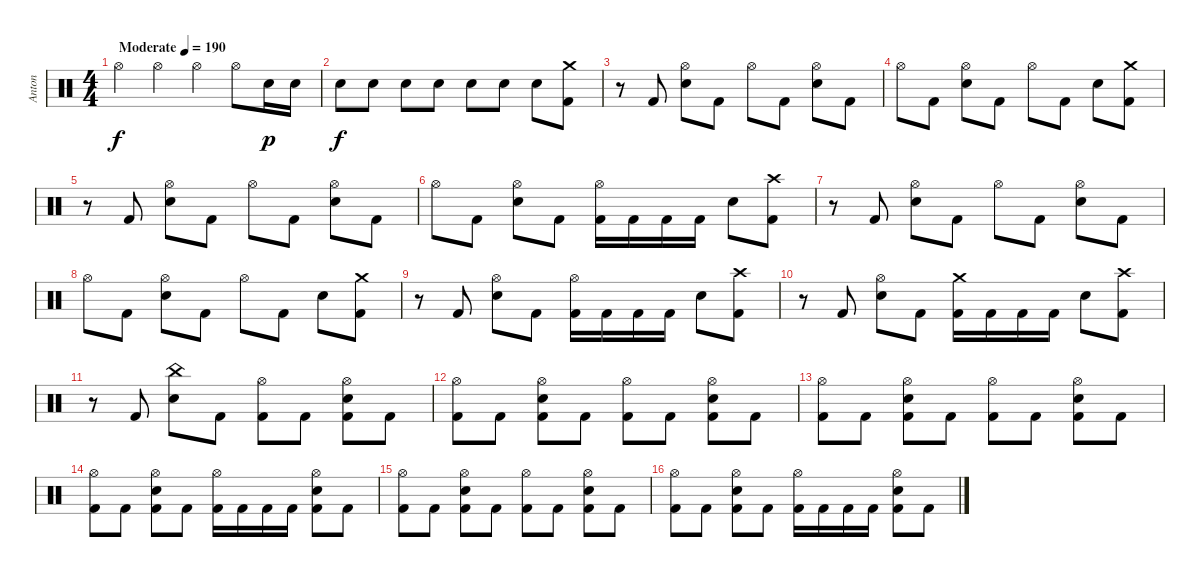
\track ("Anton" "Anton") {instrument percussion}
\staff {score}
\articulation defaults
\ts (4 4)
\tempo (190 "Moderate")
\clef neutral
\ks c "Hi-Hat (open)".4{dy f} "Hi-Hat (open)".4 "Hi-Hat (open)".4 "Hi-Hat (open)".8 "Electric Snare (hit)".16{dy p} "Electric Snare (hit)".16
|
"Electric Snare (hit)".8{dy f} "Electric Snare (hit)".8 "Electric Snare (hit)".8 "Electric Snare (hit)".8 "Electric Snare (hit)".8 "Electric Snare (hit)".8 "Electric Snare (hit)".8 ("Crash medium (hit)" "Kick (hit) 2").8 |
r.8 "Kick (hit) 2".8 ("Hi-Hat (open)" "Electric Snare (hit)").8 "Kick (hit) 2".8 "Hi-Hat (open)".8 "Kick (hit) 2".8 ("Hi-Hat (open)" "Electric Snare (hit)").8 "Kick (hit) 2".8 |
"Hi-Hat (open)".8 "Kick (hit) 2".8 ("Hi-Hat (open)" "Electric Snare (hit)").8 "Kick (hit) 2".8 "Hi-Hat (open)".8 "Kick (hit) 2".8 "Electric Snare (hit)".8 ("Crash medium (hit)" "Kick (hit) 2").8 |
r.8 "Kick (hit) 2".8 ("Hi-Hat (open)" "Electric Snare (hit)").8 "Kick (hit) 2".8 "Hi-Hat (open)".8 "Kick (hit) 2".8 ("Hi-Hat (open)" "Electric Snare (hit)").8 "Kick (hit) 2".8 |
"Hi-Hat (open)".8 "Kick (hit) 2".8 ("Hi-Hat (open)" "Electric Snare (hit)").8 "Kick (hit) 2".8 ("Hi-Hat (open)" "Kick (hit) 2").16 "Kick (hit) 2".16 "Kick (hit) 2".16 "Kick (hit) 2".16 "Electric Snare (hit)".8 ("Crash high (hit)" "Kick (hit) 2").8 |
r.8 "Kick (hit) 2".8 ("Hi-Hat (open)" "Electric Snare (hit)").8 "Kick (hit) 2".8 "Hi-Hat (open)".8 "Kick (hit) 2".8 ("Hi-Hat (open)" "Electric Snare (hit)").8 "Kick (hit) 2".8 |
"Hi-Hat (open)".8 "Kick (hit) 2".8 ("Hi-Hat (open)" "Electric Snare (hit)").8 "Kick (hit) 2".8 "Hi-Hat (open)".8 "Kick (hit) 2".8 "Electric Snare (hit)".8 ("Crash medium (hit)" "Kick (hit) 2").8 |
r.8 "Kick (hit) 2".8 ("Hi-Hat (open)" "Electric Snare (hit)").8 "Kick (hit) 2".8 ("Hi-Hat (open)" "Kick (hit) 2").16 "Kick (hit) 2".16 "Kick (hit) 2".16 "Kick (hit) 2".16 "Electric Snare (hit)".8 ("Crash high (hit)" "Kick (hit) 2").8 |
r.8 "Kick (hit) 2".8 ("Hi-Hat (open)" "Electric Snare (hit)").8 "Kick (hit) 2".8 ("Crash medium (hit)" "Kick (hit) 2").16 "Kick (hit) 2".16 "Kick (hit) 2".16 "Kick (hit) 2".16 "Electric Snare (hit)".8 ("Crash high (hit)" "Kick (hit) 2").8 |
r.8 "Kick (hit) 2".8 ("China (hit)" "Electric Snare (hit)").8 "Kick (hit) 2".8 ("Hi-Hat (open)" "Kick (hit) 2").8 "Kick (hit) 2".8 ("Hi-Hat (open)" "Electric Snare (hit)" "Kick (hit) 2").8 "Kick (hit) 2".8 |
("Hi-Hat (open)" "Kick (hit) 2").8 "Kick (hit) 2".8 ("Hi-Hat (open)" "Electric Snare (hit)" "Kick (hit) 2").8 "Kick (hit) 2".8 ("Hi-Hat (open)" "Kick (hit) 2").8 "Kick (hit) 2".8 ("Hi-Hat (open)" "Electric Snare (hit)" "Kick (hit) 2").8 "Kick (hit) 2".8 |
("Hi-Hat (open)" "Kick (hit) 2").8 "Kick (hit) 2".8 ("Hi-Hat (open)" "Electric Snare (hit)" "Kick (hit) 2").8 "Kick (hit) 2".8 ("Hi-Hat (open)" "Kick (hit) 2").8 "Kick (hit) 2".8 ("Hi-Hat (open)" "Electric Snare (hit)" "Kick (hit) 2").8 "Kick (hit) 2".8 |
("Hi-Hat (open)" "Kick (hit) 2").8 "Kick (hit) 2".8 ("Hi-Hat (open)" "Electric Snare (hit)" "Kick (hit) 2").8 "Kick (hit) 2".8 ("Hi-Hat (open)" "Kick (hit) 2").16 "Kick (hit) 2".16 "Kick (hit) 2".16 "Kick (hit) 2".16 ("Hi-Hat (open)" "Electric Snare (hit)" "Kick (hit) 2").8 "Kick (hit) 2".8 |
("Hi-Hat (open)" "Kick (hit) 2").8 "Kick (hit) 2".8 ("Hi-Hat (open)" "Electric Snare (hit)" "Kick (hit) 2").8 "Kick (hit) 2".8 ("Hi-Hat (open)" "Kick (hit) 2").8 "Kick (hit) 2".8 ("Hi-Hat (open)" "Electric Snare (hit)" "Kick (hit) 2").8 "Kick (hit) 2".8 |
("Hi-Hat (open)" "Kick (hit) 2").8 "Kick (hit) 2".8 ("Hi-Hat (open)" "Electric Snare (hit)" "Kick (hit) 2").8 "Kick (hit) 2".8 ("Hi-Hat (open)" "Kick (hit) 2").16 "Kick (hit) 2".16 "Kick (hit) 2".16 "Kick (hit) 2".16 ("Hi-Hat (open)" "Electric Snare (hit)" "Kick (hit) 2").8 "Kick (hit) 2".8
